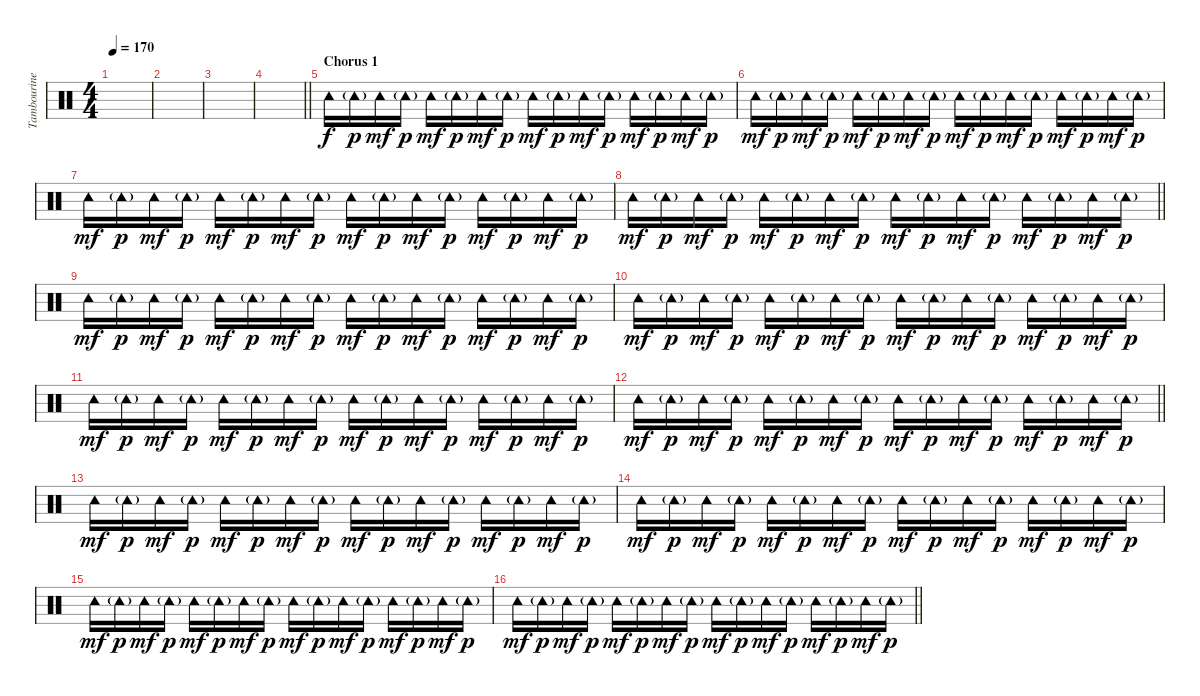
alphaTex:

\track ("Tambourine" "Tambourine") {instrument percussion}
\staff {score}
\articulation defaults
\ts (4 4)
\tempo 170
\clef neutral
\ks c
|
|
|
\barLineRight lightlight
|
\section ("" "Chorus 1")
"Tambourine (hit)".16 "Tambourine (hit)"{g}.16{dy p} "Tambourine (hit)".16{dy mf} "Tambourine (hit)"{g}.16{dy p} "Tambourine (hit)".16{dy mf} "Tambourine (hit)"{g}.16{dy p} "Tambourine (hit)".16{dy mf} "Tambourine (hit)"{g}.16{dy p} "Tambourine (hit)".16{dy mf} "Tambourine (hit)"{g}.16{dy p} "Tambourine (hit)".16{dy mf} "Tambourine (hit)"{g}.16{dy p} "Tambourine (hit)".16{dy mf} "Tambourine (hit)"{g}.16{dy p} "Tambourine (hit)".16{dy mf} "Tambourine (hit)"{g}.16{dy p} |
"Tambourine (hit)".16{dy mf} "Tambourine (hit)"{g}.16{dy p} "Tambourine (hit)".16{dy mf} "Tambourine (hit)"{g}.16{dy p} "Tambourine (hit)".16{dy mf} "Tambourine (hit)"{g}.16{dy p} "Tambourine (hit)".16{dy mf} "Tambourine (hit)"{g}.16{dy p} "Tambourine (hit)".16{dy mf} "Tambourine (hit)"{g}.16{dy p} "Tambourine (hit)".16{dy mf} "Tambourine (hit)"{g}.16{dy p} "Tambourine (hit)".16{dy mf} "Tambourine (hit)"{g}.16{dy p} "Tambourine (hit)".16{dy mf} "Tambourine (hit)"{g}.16{dy p} |
"Tambourine (hit)".16{dy mf} "Tambourine (hit)"{g}.16{dy p} "Tambourine (hit)".16{dy mf} "Tambourine (hit)"{g}.16{dy p} "Tambourine (hit)".16{dy mf} "Tambourine (hit)"{g}.16{dy p} "Tambourine (hit)".16{dy mf} "Tambourine (hit)"{g}.16{dy p} "Tambourine (hit)".16{dy mf} "Tambourine (hit)"{g}.16{dy p} "Tambourine (hit)".16{dy mf} "Tambourine (hit)"{g}.16{dy p} "Tambourine (hit)".16{dy mf} "Tambourine (hit)"{g}.16{dy p} "Tambourine (hit)".16{dy mf} "Tambourine (hit)"{g}.16{dy p} |
\barLineRight lightlight "Tambourine (hit)".16{dy mf} "Tambourine (hit)"{g}.16{dy p} "Tambourine (hit)".16{dy mf} "Tambourine (hit)"{g}.16{dy p} "Tambourine (hit)".16{dy mf} "Tambourine (hit)"{g}.16{dy p} "Tambourine (hit)".16{dy mf} "Tambourine (hit)"{g}.16{dy p} "Tambourine (hit)".16{dy mf} "Tambourine (hit)"{g}.16{dy p} "Tambourine (hit)".16{dy mf} "Tambourine (hit)"{g}.16{dy p} "Tambourine (hit)".16{dy mf} "Tambourine (hit)"{g}.16{dy p} "Tambourine (hit)".16{dy mf} "Tambourine (hit)"{g}.16{dy p}
|
"Tambourine (hit)".16{dy mf} "Tambourine (hit)"{g}.16{dy p} "Tambourine (hit)".16{dy mf} "Tambourine (hit)"{g}.16{dy p} "Tambourine (hit)".16{dy mf} "Tambourine (hit)"{g}.16{dy p} "Tambourine (hit)".16{dy mf} "Tambourine (hit)"{g}.16{dy p} "Tambourine (hit)".16{dy mf} "Tambourine (hit)"{g}.16{dy p} "Tambourine (hit)".16{dy mf} "Tambourine (hit)"{g}.16{dy p} "Tambourine (hit)".16{dy mf} "Tambourine (hit)"{g}.16{dy p} "Tambourine (hit)".16{dy mf} "Tambourine (hit)"{g}.16{dy p} |
"Tambourine (hit)".16{dy mf} "Tambourine (hit)"{g}.16{dy p} "Tambourine (hit)".16{dy mf} "Tambourine (hit)"{g}.16{dy p} "Tambourine (hit)".16{dy mf} "Tambourine (hit)"{g}.16{dy p} "Tambourine (hit)".16{dy mf} "Tambourine (hit)"{g}.16{dy p} "Tambourine (hit)".16{dy mf} "Tambourine (hit)"{g}.16{dy p} "Tambourine (hit)".16{dy mf} "Tambourine (hit)"{g}.16{dy p} "Tambourine (hit)".16{dy mf} "Tambourine (hit)"{g}.16{dy p} "Tambourine (hit)".16{dy mf} "Tambourine (hit)"{g}.16{dy p} |
"Tambourine (hit)".16{dy mf} "Tambourine (hit)"{g}.16{dy p} "Tambourine (hit)".16{dy mf} "Tambourine (hit)"{g}.16{dy p} "Tambourine (hit)".16{dy mf} "Tambourine (hit)"{g}.16{dy p} "Tambourine (hit)".16{dy mf} "Tambourine (hit)"{g}.16{dy p} "Tambourine (hit)".16{dy mf} "Tambourine (hit)"{g}.16{dy p} "Tambourine (hit)".16{dy mf} "Tambourine (hit)"{g}.16{dy p} "Tambourine (hit)".16{dy mf} "Tambourine (hit)"{g}.16{dy p} "Tambourine (hit)".16{dy mf} "Tambourine (hit)"{g}.16{dy p} |
\barLineRight lightlight "Tambourine (hit)".16{dy mf} "Tambourine (hit)"{g}.16{dy p} "Tambourine (hit)".16{dy mf} "Tambourine (hit)"{g}.16{dy p} "Tambourine (hit)".16{dy mf} "Tambourine (hit)"{g}.16{dy p} "Tambourine (hit)".16{dy mf} "Tambourine (hit)"{g}.16{dy p} "Tambourine (hit)".16{dy mf} "Tambourine (hit)"{g}.16{dy p} "Tambourine (hit)".16{dy mf} "Tambourine (hit)"{g}.16{dy p} "Tambourine (hit)".16{dy mf} "Tambourine (hit)"{g}.16{dy p} "Tambourine (hit)".16{dy mf} "Tambourine (hit)"{g}.16{dy p}
|
"Tambourine (hit)".16{dy mf} "Tambourine (hit)"{g}.16{dy p} "Tambourine (hit)".16{dy mf} "Tambourine (hit)"{g}.16{dy p} "Tambourine (hit)".16{dy mf} "Tambourine (hit)"{g}.16{dy p} "Tambourine (hit)".16{dy mf} "Tambourine (hit)"{g}.16{dy p} "Tambourine (hit)".16{dy mf} "Tambourine (hit)"{g}.16{dy p} "Tambourine (hit)".16{dy mf} "Tambourine (hit)"{g}.16{dy p} "Tambourine (hit)".16{dy mf} "Tambourine (hit)"{g}.16{dy p} "Tambourine (hit)".16{dy mf} "Tambourine (hit)"{g}.16{dy p} |
"Tambourine (hit)".16{dy mf} "Tambourine (hit)"{g}.16{dy p} "Tambourine (hit)".16{dy mf} "Tambourine (hit)"{g}.16{dy p} "Tambourine (hit)".16{dy mf} "Tambourine (hit)"{g}.16{dy p} "Tambourine (hit)".16{dy mf} "Tambourine (hit)"{g}.16{dy p} "Tambourine (hit)".16{dy mf} "Tambourine (hit)"{g}.16{dy p} "Tambourine (hit)".16{dy mf} "Tambourine (hit)"{g}.16{dy p} "Tambourine (hit)".16{dy mf} "Tambourine (hit)"{g}.16{dy p} "Tambourine (hit)".16{dy mf} "Tambourine (hit)"{g}.16{dy p} |
"Tambourine (hit)".16{dy mf} "Tambourine (hit)"{g}.16{dy p} "Tambourine (hit)".16{dy mf} "Tambourine (hit)"{g}.16{dy p} "Tambourine (hit)".16{dy mf} "Tambourine (hit)"{g}.16{dy p} "Tambourine (hit)".16{dy mf} "Tambourine (hit)"{g}.16{dy p} "Tambourine (hit)".16{dy mf} "Tambourine (hit)"{g}.16{dy p} "Tambourine (hit)".16{dy mf} "Tambourine (hit)"{g}.16{dy p} "Tambourine (hit)".16{dy mf} "Tambourine (hit)"{g}.16{dy p} "Tambourine (hit)".16{dy mf} "Tambourine (hit)"{g}.16{dy p} |
\barLineRight lightlight "Tambourine (hit)".16{dy mf} "Tambourine (hit)"{g}.16{dy p} "Tambourine (hit)".16{dy mf} "Tambourine (hit)"{g}.16{dy p} "Tambourine (hit)".16{dy mf} "Tambourine (hit)"{g}.16{dy p} "Tambourine (hit)".16{dy mf} "Tambourine (hit)"{g}.16{dy p} "Tambourine (hit)".16{dy mf} "Tambourine (hit)"{g}.16{dy p} "Tambourine (hit)".16{dy mf} "Tambourine (hit)"{g}.16{dy p} "Tambourine (hit)".16{dy mf} "Tambourine (hit)"{g}.16{dy p} "Tambourine (hit)".16{dy mf} "Tambourine (hit)"{g}.16{dy p}
